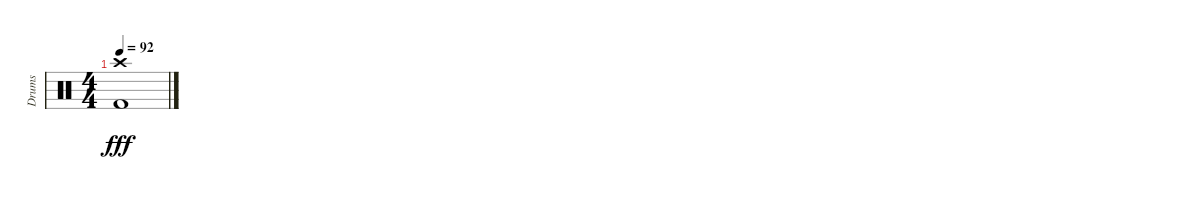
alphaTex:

\track ("Drums" "Drums") {instrument percussion}
\staff {score}
\articulation defaults
\ts (4 4)
\tempo 92
\clef neutral
\ks c
("Crash high (hit)" "Kick (hit) 2").1{dy fff}
